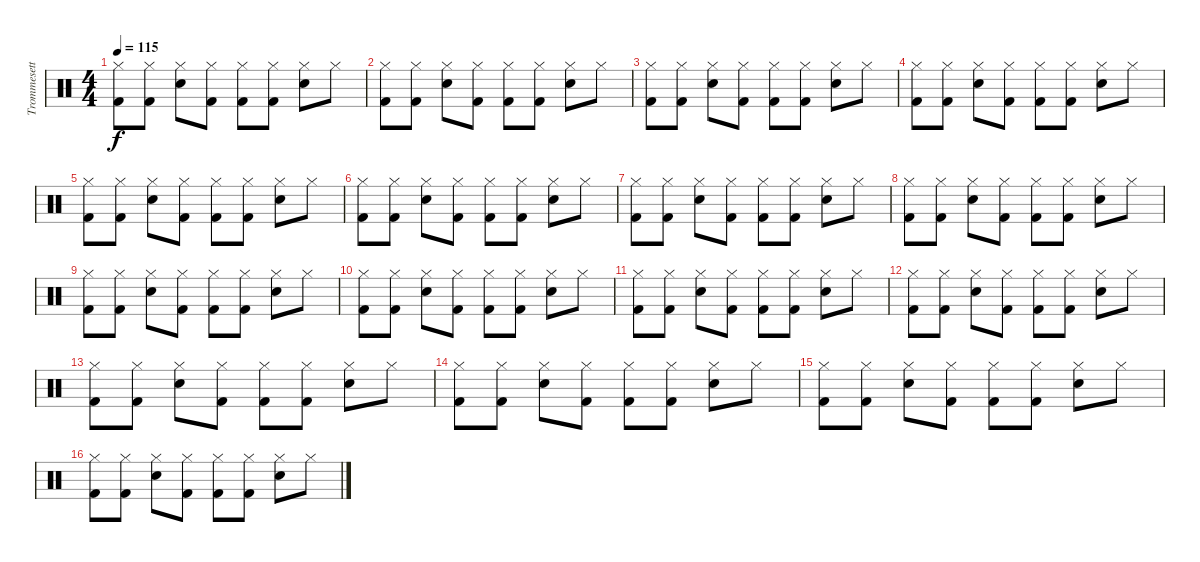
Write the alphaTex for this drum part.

\track ("Trommesett" "Trommesett") {instrument percussion}
\staff {score}
\articulation defaults
\ts (4 4)
\tempo 115
\clef neutral
\ks c
("Hi-Hat (closed)" "Kick (hit) 2").8{dy f} ("Hi-Hat (closed)" "Kick (hit) 2").8 ("Hi-Hat (closed)" "Electric Snare (hit)").8 ("Hi-Hat (closed)" "Kick (hit) 2").8 ("Hi-Hat (closed)" "Kick (hit) 2").8 ("Hi-Hat (closed)" "Kick (hit) 2").8 ("Hi-Hat (closed)" "Electric Snare (hit)").8 "Hi-Hat (closed)".8 |
("Hi-Hat (closed)" "Kick (hit) 2").8 ("Hi-Hat (closed)" "Kick (hit) 2").8 ("Hi-Hat (closed)" "Electric Snare (hit)").8 ("Hi-Hat (closed)" "Kick (hit) 2").8 ("Hi-Hat (closed)" "Kick (hit) 2").8 ("Hi-Hat (closed)" "Kick (hit) 2").8 ("Hi-Hat (closed)" "Electric Snare (hit)").8 "Hi-Hat (closed)".8 |
("Hi-Hat (closed)" "Kick (hit) 2").8 ("Hi-Hat (closed)" "Kick (hit) 2").8 ("Hi-Hat (closed)" "Electric Snare (hit)").8 ("Hi-Hat (closed)" "Kick (hit) 2").8 ("Hi-Hat (closed)" "Kick (hit) 2").8 ("Hi-Hat (closed)" "Kick (hit) 2").8 ("Hi-Hat (closed)" "Electric Snare (hit)").8 "Hi-Hat (closed)".8 |
("Hi-Hat (closed)" "Kick (hit) 2").8 ("Hi-Hat (closed)" "Kick (hit) 2").8 ("Hi-Hat (closed)" "Electric Snare (hit)").8 ("Hi-Hat (closed)" "Kick (hit) 2").8 ("Hi-Hat (closed)" "Kick (hit) 2").8 ("Hi-Hat (closed)" "Kick (hit) 2").8 ("Hi-Hat (closed)" "Electric Snare (hit)").8 "Hi-Hat (closed)".8 |
("Hi-Hat (closed)" "Kick (hit) 2").8 ("Hi-Hat (closed)" "Kick (hit) 2").8 ("Hi-Hat (closed)" "Electric Snare (hit)").8 ("Hi-Hat (closed)" "Kick (hit) 2").8 ("Hi-Hat (closed)" "Kick (hit) 2").8 ("Hi-Hat (closed)" "Kick (hit) 2").8 ("Hi-Hat (closed)" "Electric Snare (hit)").8 "Hi-Hat (closed)".8 |
("Hi-Hat (closed)" "Kick (hit) 2").8 ("Hi-Hat (closed)" "Kick (hit) 2").8 ("Hi-Hat (closed)" "Electric Snare (hit)").8 ("Hi-Hat (closed)" "Kick (hit) 2").8 ("Hi-Hat (closed)" "Kick (hit) 2").8 ("Hi-Hat (closed)" "Kick (hit) 2").8 ("Hi-Hat (closed)" "Electric Snare (hit)").8 "Hi-Hat (closed)".8 |
("Hi-Hat (closed)" "Kick (hit) 2").8 ("Hi-Hat (closed)" "Kick (hit) 2").8 ("Hi-Hat (closed)" "Electric Snare (hit)").8 ("Hi-Hat (closed)" "Kick (hit) 2").8 ("Hi-Hat (closed)" "Kick (hit) 2").8 ("Hi-Hat (closed)" "Kick (hit) 2").8 ("Hi-Hat (closed)" "Electric Snare (hit)").8 "Hi-Hat (closed)".8 |
("Hi-Hat (closed)" "Kick (hit) 2").8 ("Hi-Hat (closed)" "Kick (hit) 2").8 ("Hi-Hat (closed)" "Electric Snare (hit)").8 ("Hi-Hat (closed)" "Kick (hit) 2").8 ("Hi-Hat (closed)" "Kick (hit) 2").8 ("Hi-Hat (closed)" "Kick (hit) 2").8 ("Hi-Hat (closed)" "Electric Snare (hit)").8 "Hi-Hat (closed)".8 |
("Hi-Hat (closed)" "Kick (hit) 2").8 ("Hi-Hat (closed)" "Kick (hit) 2").8 ("Hi-Hat (closed)" "Electric Snare (hit)").8 ("Hi-Hat (closed)" "Kick (hit) 2").8 ("Hi-Hat (closed)" "Kick (hit) 2").8 ("Hi-Hat (closed)" "Kick (hit) 2").8 ("Hi-Hat (closed)" "Electric Snare (hit)").8 "Hi-Hat (closed)".8 |
("Hi-Hat (closed)" "Kick (hit) 2").8 ("Hi-Hat (closed)" "Kick (hit) 2").8 ("Hi-Hat (closed)" "Electric Snare (hit)").8 ("Hi-Hat (closed)" "Kick (hit) 2").8 ("Hi-Hat (closed)" "Kick (hit) 2").8 ("Hi-Hat (closed)" "Kick (hit) 2").8 ("Hi-Hat (closed)" "Electric Snare (hit)").8 "Hi-Hat (closed)".8 |
("Hi-Hat (closed)" "Kick (hit) 2").8 ("Hi-Hat (closed)" "Kick (hit) 2").8 ("Hi-Hat (closed)" "Electric Snare (hit)").8 ("Hi-Hat (closed)" "Kick (hit) 2").8 ("Hi-Hat (closed)" "Kick (hit) 2").8 ("Hi-Hat (closed)" "Kick (hit) 2").8 ("Hi-Hat (closed)" "Electric Snare (hit)").8 "Hi-Hat (closed)".8 |
("Hi-Hat (closed)" "Kick (hit) 2").8 ("Hi-Hat (closed)" "Kick (hit) 2").8 ("Hi-Hat (closed)" "Electric Snare (hit)").8 ("Hi-Hat (closed)" "Kick (hit) 2").8 ("Hi-Hat (closed)" "Kick (hit) 2").8 ("Hi-Hat (closed)" "Kick (hit) 2").8 ("Hi-Hat (closed)" "Electric Snare (hit)").8 "Hi-Hat (closed)".8 |
("Hi-Hat (closed)" "Kick (hit) 2").8 ("Hi-Hat (closed)" "Kick (hit) 2").8 ("Hi-Hat (closed)" "Electric Snare (hit)").8 ("Hi-Hat (closed)" "Kick (hit) 2").8 ("Hi-Hat (closed)" "Kick (hit) 2").8 ("Hi-Hat (closed)" "Kick (hit) 2").8 ("Hi-Hat (closed)" "Electric Snare (hit)").8 "Hi-Hat (closed)".8 |
("Hi-Hat (closed)" "Kick (hit) 2").8 ("Hi-Hat (closed)" "Kick (hit) 2").8 ("Hi-Hat (closed)" "Electric Snare (hit)").8 ("Hi-Hat (closed)" "Kick (hit) 2").8 ("Hi-Hat (closed)" "Kick (hit) 2").8 ("Hi-Hat (closed)" "Kick (hit) 2").8 ("Hi-Hat (closed)" "Electric Snare (hit)").8 "Hi-Hat (closed)".8 |
("Hi-Hat (closed)" "Kick (hit) 2").8 ("Hi-Hat (closed)" "Kick (hit) 2").8 ("Hi-Hat (closed)" "Electric Snare (hit)").8 ("Hi-Hat (closed)" "Kick (hit) 2").8 ("Hi-Hat (closed)" "Kick (hit) 2").8 ("Hi-Hat (closed)" "Kick (hit) 2").8 ("Hi-Hat (closed)" "Electric Snare (hit)").8 "Hi-Hat (closed)".8 |
("Hi-Hat (closed)" "Kick (hit) 2").8 ("Hi-Hat (closed)" "Kick (hit) 2").8 ("Hi-Hat (closed)" "Electric Snare (hit)").8 ("Hi-Hat (closed)" "Kick (hit) 2").8 ("Hi-Hat (closed)" "Kick (hit) 2").8 ("Hi-Hat (closed)" "Kick (hit) 2").8 ("Hi-Hat (closed)" "Electric Snare (hit)").8 "Hi-Hat (closed)".8
